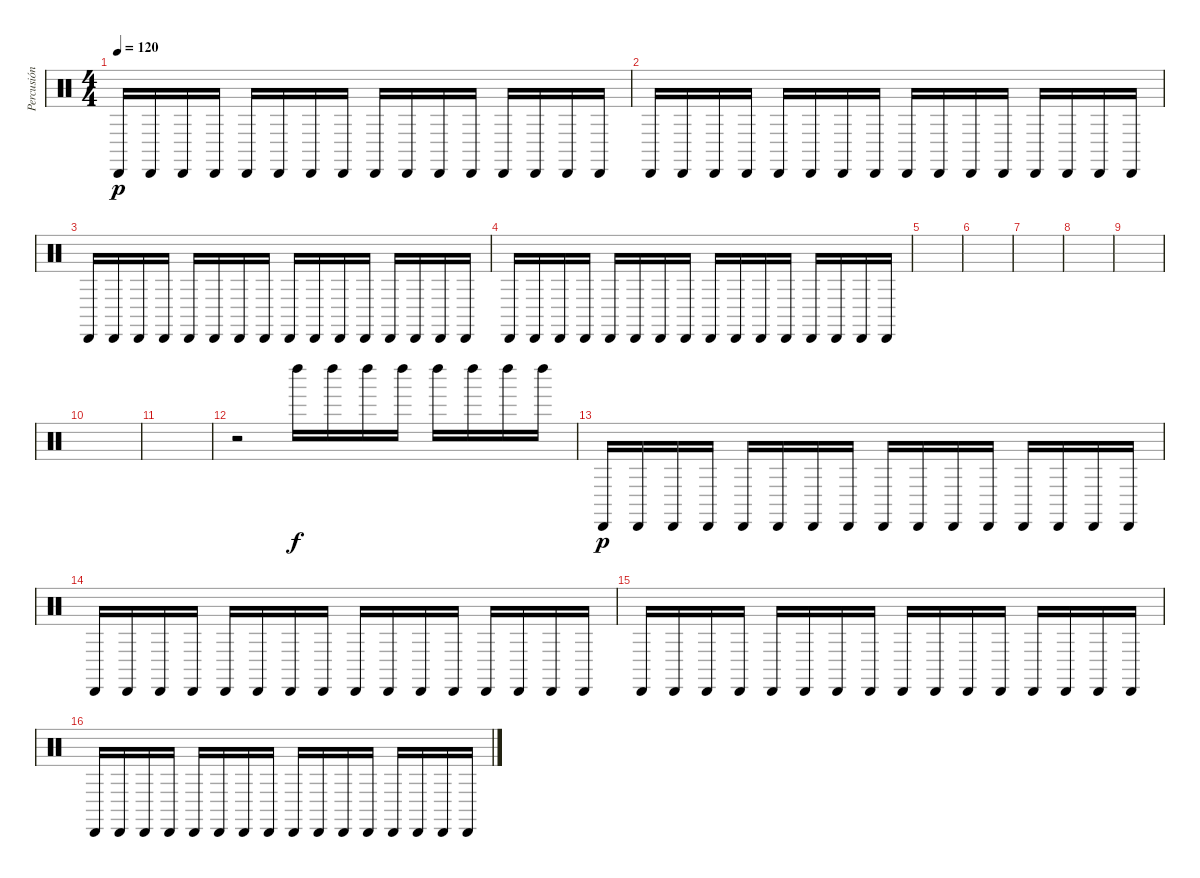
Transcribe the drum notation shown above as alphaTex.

\track ("Percusión" "Percusión") {instrument percussion}
\staff {score}
\articulation defaults
\ts (4 4)
\tempo 120
\clef neutral
\ks c "Cabasa (hit)".16{dy p} "Cabasa (hit)".16 "Cabasa (hit)".16 "Cabasa (hit)".16 "Cabasa (hit)".16 "Cabasa (hit)".16 "Cabasa (hit)".16 "Cabasa (hit)".16 "Cabasa (hit)".16 "Cabasa (hit)".16 "Cabasa (hit)".16 "Cabasa (hit)".16 "Cabasa (hit)".16 "Cabasa (hit)".16 "Cabasa (hit)".16 "Cabasa (hit)".16
|
"Cabasa (hit)".16 "Cabasa (hit)".16 "Cabasa (hit)".16 "Cabasa (hit)".16 "Cabasa (hit)".16 "Cabasa (hit)".16 "Cabasa (hit)".16 "Cabasa (hit)".16 "Cabasa (hit)".16 "Cabasa (hit)".16 "Cabasa (hit)".16 "Cabasa (hit)".16 "Cabasa (hit)".16 "Cabasa (hit)".16 "Cabasa (hit)".16 "Cabasa (hit)".16 |
"Cabasa (hit)".16 "Cabasa (hit)".16 "Cabasa (hit)".16 "Cabasa (hit)".16 "Cabasa (hit)".16 "Cabasa (hit)".16 "Cabasa (hit)".16 "Cabasa (hit)".16 "Cabasa (hit)".16 "Cabasa (hit)".16 "Cabasa (hit)".16 "Cabasa (hit)".16 "Cabasa (hit)".16 "Cabasa (hit)".16 "Cabasa (hit)".16 "Cabasa (hit)".16 |
"Cabasa (hit)".16 "Cabasa (hit)".16 "Cabasa (hit)".16 "Cabasa (hit)".16 "Cabasa (hit)".16 "Cabasa (hit)".16 "Cabasa (hit)".16 "Cabasa (hit)".16 "Cabasa (hit)".16 "Cabasa (hit)".16 "Cabasa (hit)".16 "Cabasa (hit)".16 "Cabasa (hit)".16 "Cabasa (hit)".16 "Cabasa (hit)".16 "Cabasa (hit)".16 |
|
|
|
|
|
|
|
r.2 "Left Maraca (hit)".16{dy f} "Left Maraca (hit)".16 "Left Maraca (hit)".16 "Left Maraca (hit)".16 "Left Maraca (hit)".16 "Left Maraca (hit)".16 "Left Maraca (hit)".16 "Left Maraca (hit)".16 |
"Cabasa (hit)".16{dy p} "Cabasa (hit)".16 "Cabasa (hit)".16 "Cabasa (hit)".16 "Cabasa (hit)".16 "Cabasa (hit)".16 "Cabasa (hit)".16 "Cabasa (hit)".16 "Cabasa (hit)".16 "Cabasa (hit)".16 "Cabasa (hit)".16 "Cabasa (hit)".16 "Cabasa (hit)".16 "Cabasa (hit)".16 "Cabasa (hit)".16 "Cabasa (hit)".16 |
"Cabasa (hit)".16 "Cabasa (hit)".16 "Cabasa (hit)".16 "Cabasa (hit)".16 "Cabasa (hit)".16 "Cabasa (hit)".16 "Cabasa (hit)".16 "Cabasa (hit)".16 "Cabasa (hit)".16 "Cabasa (hit)".16 "Cabasa (hit)".16 "Cabasa (hit)".16 "Cabasa (hit)".16 "Cabasa (hit)".16 "Cabasa (hit)".16 "Cabasa (hit)".16 |
"Cabasa (hit)".16 "Cabasa (hit)".16 "Cabasa (hit)".16 "Cabasa (hit)".16 "Cabasa (hit)".16 "Cabasa (hit)".16 "Cabasa (hit)".16 "Cabasa (hit)".16 "Cabasa (hit)".16 "Cabasa (hit)".16 "Cabasa (hit)".16 "Cabasa (hit)".16 "Cabasa (hit)".16 "Cabasa (hit)".16 "Cabasa (hit)".16 "Cabasa (hit)".16 |
"Cabasa (hit)".16 "Cabasa (hit)".16 "Cabasa (hit)".16 "Cabasa (hit)".16 "Cabasa (hit)".16 "Cabasa (hit)".16 "Cabasa (hit)".16 "Cabasa (hit)".16 "Cabasa (hit)".16 "Cabasa (hit)".16 "Cabasa (hit)".16 "Cabasa (hit)".16 "Cabasa (hit)".16 "Cabasa (hit)".16 "Cabasa (hit)".16 "Cabasa (hit)".16
